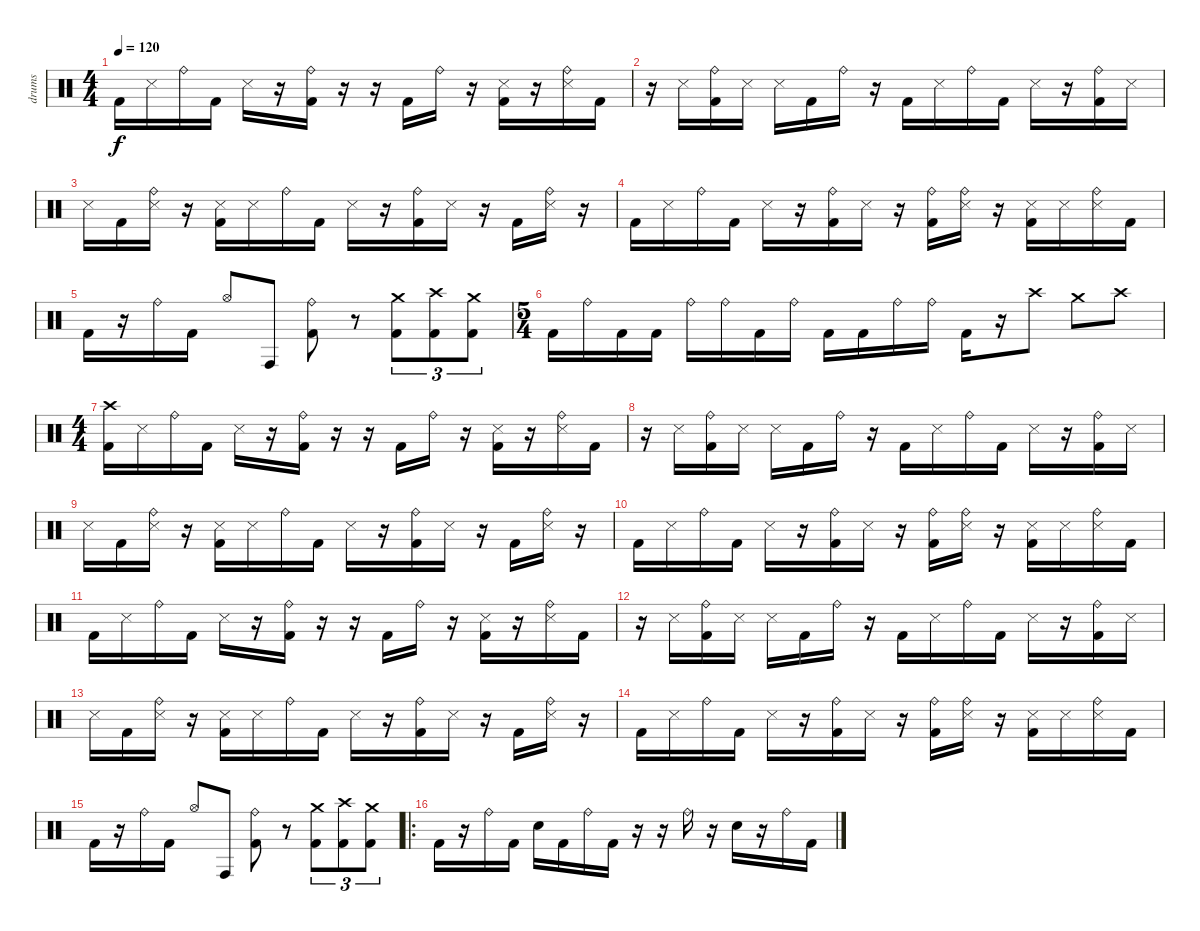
\track ("drums" "drums") {instrument percussion}
\staff {score}
\articulation defaults
\ts (4 4)
\tempo 120
\clef neutral
\ks c "Kick (hit) 2".16{dy f} "Snare (side stick) 3".16 "Ride (bell)".16 "Kick (hit) 2".16 "Snare (side stick) 3".16
r.16 ("Ride (bell)" "Kick (hit) 2").16 r.16 r.16 "Kick (hit) 2".16 "Ride (bell)".16 r.16 ("Snare (side stick) 3" "Kick (hit) 2").16 r.16 ("Ride (bell)" "Snare (side stick) 3").16 "Kick (hit) 2".16 |
r.16 "Snare (side stick) 3".16 ("Ride (bell)" "Kick (hit) 2").16 "Snare (side stick) 3".16 "Snare (side stick) 3".16 "Kick (hit) 2".16 "Ride (bell)".16 r.16 "Kick (hit) 2".16 "Snare (side stick) 3".16 "Ride (bell)".16 "Kick (hit) 2".16 "Snare (side stick) 3".16 r.16 ("Ride (bell)" "Kick (hit) 2").16 "Snare (side stick) 3".16 |
"Snare (side stick) 3".16 "Kick (hit) 2".16 ("Ride (bell)" "Snare (side stick) 3").16 r.16 ("Snare (side stick) 3" "Kick (hit) 2").16 "Snare (side stick) 3".16 "Ride (bell)".16 "Kick (hit) 2".16 "Snare (side stick) 3".16 r.16 ("Ride (bell)" "Kick (hit) 2").16 "Snare (side stick) 3".16 r.16 "Kick (hit) 2".16 ("Ride (bell)" "Snare (side stick) 3").16 r.16 |
"Kick (hit) 2".16 "Snare (side stick) 3".16 "Ride (bell)".16 "Kick (hit) 2".16 "Snare (side stick) 3".16 r.16 ("Ride (bell)" "Kick (hit) 2").16 "Snare (side stick) 3".16 r.16 ("Ride (bell)" "Kick (hit) 2").16 ("Ride (bell)" "Snare (side stick) 3").16 r.16 ("Snare (side stick) 3" "Kick (hit) 2").16 "Snare (side stick) 3".16 ("Ride (bell)" "Snare (side stick) 3").16 "Kick (hit) 2".16 |
"Kick (hit) 2".16 r.16 "Ride (bell)".16 "Kick (hit) 2".16 "Hi-Hat (open)".8 "Conga high (hit)".8 ("Ride (bell)" "Kick (hit) 2").8 r.8 ("Crash medium (hit)" "Kick (hit) 2").8{tu (3 2)} ("Crash high (hit)" "Kick (hit) 2").8{tu (3 2)} ("Crash medium (hit)" "Kick (hit) 2").8{tu (3 2)} |
\ts (5 4)
"Kick (hit) 2".16 "Ride (bell)".16 "Kick (hit) 2".16 "Kick (hit) 2".16 "Ride (bell)".16 "Ride (bell)".16 "Kick (hit) 2".16 "Ride (bell)".16 "Kick (hit) 2".16 "Kick (hit) 2".16 "Ride (bell)".16 "Ride (bell)".16 "Kick (hit) 2".16 r.16 "Crash high (hit)".8 "Crash medium (hit)".8 "Crash high (hit)".8 |
\ts (4 4)
("Crash high (hit)" "Kick (hit) 2").16 "Snare (side stick) 3".16 "Ride (bell)".16 "Kick (hit) 2".16 "Snare (side stick) 3".16 r.16 ("Ride (bell)" "Kick (hit) 2").16 r.16 r.16 "Kick (hit) 2".16 "Ride (bell)".16 r.16 ("Snare (side stick) 3" "Kick (hit) 2").16 r.16 ("Ride (bell)" "Snare (side stick) 3").16 "Kick (hit) 2".16 |
r.16 "Snare (side stick) 3".16 ("Ride (bell)" "Kick (hit) 2").16 "Snare (side stick) 3".16 "Snare (side stick) 3".16 "Kick (hit) 2".16 "Ride (bell)".16 r.16 "Kick (hit) 2".16 "Snare (side stick) 3".16 "Ride (bell)".16 "Kick (hit) 2".16 "Snare (side stick) 3".16 r.16 ("Ride (bell)" "Kick (hit) 2").16 "Snare (side stick) 3".16 |
"Snare (side stick) 3".16 "Kick (hit) 2".16 ("Ride (bell)" "Snare (side stick) 3").16 r.16 ("Snare (side stick) 3" "Kick (hit) 2").16 "Snare (side stick) 3".16 "Ride (bell)".16 "Kick (hit) 2".16 "Snare (side stick) 3".16 r.16 ("Ride (bell)" "Kick (hit) 2").16 "Snare (side stick) 3".16 r.16 "Kick (hit) 2".16 ("Ride (bell)" "Snare (side stick) 3").16 r.16 |
"Kick (hit) 2".16 "Snare (side stick) 3".16 "Ride (bell)".16 "Kick (hit) 2".16 "Snare (side stick) 3".16 r.16 ("Ride (bell)" "Kick (hit) 2").16 "Snare (side stick) 3".16 r.16 ("Ride (bell)" "Kick (hit) 2").16 ("Ride (bell)" "Snare (side stick) 3").16 r.16 ("Snare (side stick) 3" "Kick (hit) 2").16 "Snare (side stick) 3".16 ("Ride (bell)" "Snare (side stick) 3").16 "Kick (hit) 2".16 |
"Kick (hit) 2".16 "Snare (side stick) 3".16 "Ride (bell)".16 "Kick (hit) 2".16 "Snare (side stick) 3".16 r.16 ("Ride (bell)" "Kick (hit) 2").16 r.16 r.16 "Kick (hit) 2".16 "Ride (bell)".16 r.16 ("Snare (side stick) 3" "Kick (hit) 2").16 r.16 ("Ride (bell)" "Snare (side stick) 3").16 "Kick (hit) 2".16 |
r.16 "Snare (side stick) 3".16 ("Ride (bell)" "Kick (hit) 2").16 "Snare (side stick) 3".16 "Snare (side stick) 3".16 "Kick (hit) 2".16 "Ride (bell)".16 r.16 "Kick (hit) 2".16 "Snare (side stick) 3".16 "Ride (bell)".16 "Kick (hit) 2".16 "Snare (side stick) 3".16 r.16 ("Ride (bell)" "Kick (hit) 2").16 "Snare (side stick) 3".16 |
"Snare (side stick) 3".16 "Kick (hit) 2".16 ("Ride (bell)" "Snare (side stick) 3").16 r.16 ("Snare (side stick) 3" "Kick (hit) 2").16 "Snare (side stick) 3".16 "Ride (bell)".16 "Kick (hit) 2".16 "Snare (side stick) 3".16 r.16 ("Ride (bell)" "Kick (hit) 2").16 "Snare (side stick) 3".16 r.16 "Kick (hit) 2".16 ("Ride (bell)" "Snare (side stick) 3").16 r.16 |
"Kick (hit) 2".16 "Snare (side stick) 3".16 "Ride (bell)".16 "Kick (hit) 2".16 "Snare (side stick) 3".16 r.16 ("Ride (bell)" "Kick (hit) 2").16 "Snare (side stick) 3".16 r.16 ("Ride (bell)" "Kick (hit) 2").16 ("Ride (bell)" "Snare (side stick) 3").16 r.16 ("Snare (side stick) 3" "Kick (hit) 2").16 "Snare (side stick) 3".16 ("Ride (bell)" "Snare (side stick) 3").16 "Kick (hit) 2".16 |
"Kick (hit) 2".16 r.16 "Ride (bell)".16 "Kick (hit) 2".16 "Hi-Hat (open)".8 "Conga high (hit)".8 ("Ride (bell)" "Kick (hit) 2").8 r.8 ("Crash medium (hit)" "Kick (hit) 2").8{tu (3 2)} ("Crash high (hit)" "Kick (hit) 2").8{tu (3 2)} ("Crash medium (hit)" "Kick (hit) 2").8{tu (3 2)} |
\ro "Kick (hit) 2".16
r.16 "Ride (bell)".16 "Kick (hit) 2".16 "Snare (hit) 2".16 "Kick (hit) 2".16 "Ride (bell)".16 "Kick (hit) 2".16 r.16 r.16 "Ride (bell)".16 r.16 "Snare (hit) 2".16 r.16 "Ride (bell)".16 "Kick (hit) 2".16
